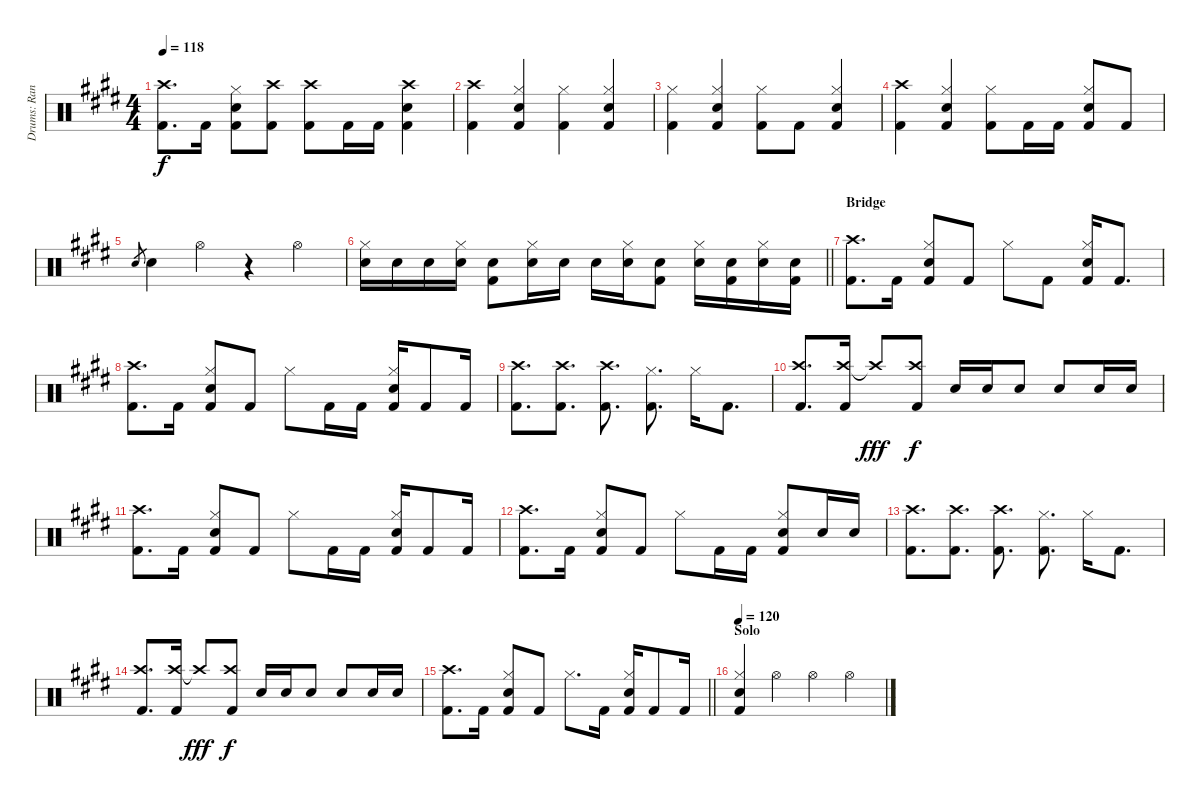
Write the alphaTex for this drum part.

\track ("Drums: Randy" "Drums: Ran") {instrument percussion}
\staff {score}
\articulation defaults
\ts (4 4)
\tempo 118
\clef neutral
\ks e
("Crash high (hit)" "Kick (hit) 2").8{d dy f} "Kick (hit) 2".16 ("Hi-Hat (closed)" "Snare (hit) 2" "Kick (hit) 2").8 ("Crash high (hit)" "Kick (hit) 2").8 ("Crash high (hit)" "Kick (hit) 2").8 "Kick (hit) 2".16 "Kick (hit) 2".16 ("Crash high (hit)" "Snare (hit) 2" "Kick (hit) 2").4 |
("Crash high (hit)" "Kick (hit) 2").4 ("Hi-Hat (closed)" "Snare (hit) 2" "Kick (hit) 2").4 ("Hi-Hat (closed)" "Kick (hit) 2").4 ("Hi-Hat (closed)" "Snare (hit) 2" "Kick (hit) 2").4 |
("Hi-Hat (closed)" "Kick (hit) 2").4 ("Hi-Hat (closed)" "Snare (hit) 2" "Kick (hit) 2").4 ("Hi-Hat (closed)" "Kick (hit) 2").8 "Kick (hit) 2".8 ("Hi-Hat (closed)" "Snare (hit) 2" "Kick (hit) 2").4 |
("Crash high (hit)" "Kick (hit) 2").4 ("Hi-Hat (closed)" "Snare (hit) 2" "Kick (hit) 2").4 ("Hi-Hat (closed)" "Kick (hit) 2").8 "Kick (hit) 2".16 "Kick (hit) 2".16 ("Hi-Hat (closed)" "Snare (hit) 2" "Kick (hit) 2").8 "Kick (hit) 2".8 |
"Snare (hit) 2".8{gr} "Snare (hit) 2".4 "Hi-Hat (open)".4 r.4 "Hi-Hat (open)".4 |
\barLineRight lightlight
("Hi-Hat (closed)" "Snare (hit) 2").16 "Snare (hit) 2".16 "Snare (hit) 2".16 ("Hi-Hat (closed)" "Snare (hit) 2").16 ("Snare (hit) 2" "Kick (hit) 2").8 ("Hi-Hat (closed)" "Snare (hit) 2").16 "Snare (hit) 2".16 "Snare (hit) 2".16 ("Hi-Hat (closed)" "Snare (hit) 2").16 ("Snare (hit) 2" "Kick (hit) 2").8 ("Hi-Hat (closed)" "Snare (hit) 2").16 ("Snare (hit) 2" "Kick (hit) 2").16 ("Hi-Hat (closed)" "Snare (hit) 2").16 ("Snare (hit) 2" "Kick (hit) 2").16 |
\section ("" "Bridge")
("Crash high (hit)" "Kick (hit) 2").8{d} "Kick (hit) 2".16 ("Hi-Hat (closed)" "Snare (hit) 2" "Kick (hit) 2").8 "Kick (hit) 2".8 "Hi-Hat (closed)".8 "Kick (hit) 2".8 ("Hi-Hat (closed)" "Snare (hit) 2" "Kick (hit) 2").16 "Kick (hit) 2".8{d} |
("Crash high (hit)" "Kick (hit) 2").8{d} "Kick (hit) 2".16 ("Hi-Hat (closed)" "Snare (hit) 2" "Kick (hit) 2").8 "Kick (hit) 2".8 "Hi-Hat (closed)".8 "Kick (hit) 2".16 "Kick (hit) 2".16 ("Hi-Hat (closed)" "Snare (hit) 2" "Kick (hit) 2").16 "Kick (hit) 2".8 "Kick (hit) 2".16 |
("Crash high (hit)" "Kick (hit) 2").8{d} ("Crash high (hit)" "Kick (hit) 2").8{d} ("Crash high (hit)" "Kick (hit) 2").8{d} ("Hi-Hat (closed)" "Kick (hit) 2").8{d} "Hi-Hat (closed)".16 "Kick (hit) 2".8{d} |
("Crash high (hit)" "Kick (hit) 2").8{d beam Up} ("Crash high (hit)" "Kick (hit) 2").16{beam Up} "Crash high (hit)"{t}.8{dy fff beam Up} ("Crash high (hit)" "Kick (hit) 2").8{dy f beam Up} "Snare (hit) 2".16{beam Up} "Snare (hit) 2".16{beam Up} "Snare (hit) 2".8{beam Up} "Snare (hit) 2".8{beam Up} "Snare (hit) 2".16{beam Up} "Snare (hit) 2".16{beam Up} |
("Crash high (hit)" "Kick (hit) 2").8{d} "Kick (hit) 2".16 ("Hi-Hat (closed)" "Snare (hit) 2" "Kick (hit) 2").8 "Kick (hit) 2".8 "Hi-Hat (closed)".8 "Kick (hit) 2".16 "Kick (hit) 2".16 ("Hi-Hat (closed)" "Snare (hit) 2" "Kick (hit) 2").16 "Kick (hit) 2".8 "Kick (hit) 2".16 |
("Crash high (hit)" "Kick (hit) 2").8{d} "Kick (hit) 2".16 ("Hi-Hat (closed)" "Snare (hit) 2" "Kick (hit) 2").8 "Kick (hit) 2".8 "Hi-Hat (closed)".8 "Kick (hit) 2".16 "Kick (hit) 2".16 ("Hi-Hat (closed)" "Snare (hit) 2" "Kick (hit) 2").8 "Snare (hit) 2".16{beam Up} "Snare (hit) 2".16{beam Up} |
("Crash high (hit)" "Kick (hit) 2").8{d} ("Crash high (hit)" "Kick (hit) 2").8{d} ("Crash high (hit)" "Kick (hit) 2").8{d} ("Hi-Hat (closed)" "Kick (hit) 2").8{d} "Hi-Hat (closed)".16 "Kick (hit) 2".8{d} |
("Crash high (hit)" "Kick (hit) 2").8{d beam Up} ("Crash high (hit)" "Kick (hit) 2").16{beam Up} "Crash high (hit)"{t}.8{dy fff beam Up} ("Crash high (hit)" "Kick (hit) 2").8{dy f beam Up} "Snare (hit) 2".16{beam Up} "Snare (hit) 2".16{beam Up} "Snare (hit) 2".8{beam Up} "Snare (hit) 2".8{beam Up} "Snare (hit) 2".16{beam Up} "Snare (hit) 2".16{beam Up} |
\barLineRight lightlight
("Crash high (hit)" "Kick (hit) 2").8{d} "Kick (hit) 2".16 ("Hi-Hat (closed)" "Snare (hit) 2" "Kick (hit) 2").8 "Kick (hit) 2".8 "Hi-Hat (closed)".8{d} "Kick (hit) 2".16 ("Hi-Hat (closed)" "Snare (hit) 2" "Kick (hit) 2").16 "Kick (hit) 2".8 "Kick (hit) 2".16 |
\section ("" "Solo")
\tempo 120
("Hi-Hat (closed)" "Snare (hit) 2" "Kick (hit) 2").4 "Hi-Hat (open)".4 "Hi-Hat (open)".4 "Hi-Hat (open)".4
